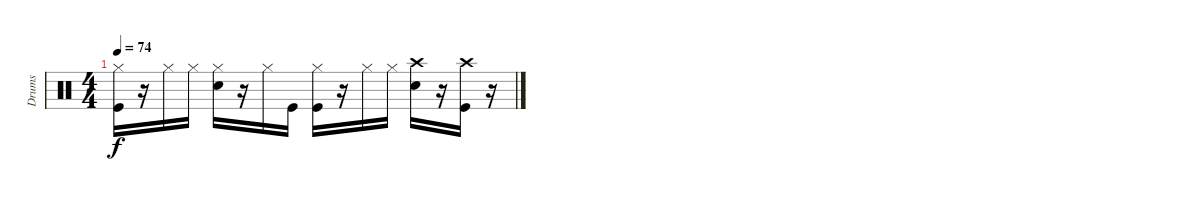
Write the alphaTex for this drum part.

\track ("Drums" "Drums") {instrument percussion}
\staff {score}
\articulation defaults
\ts (4 4)
\tempo 74
\clef neutral
\ks c
("Kick (hit)" "Hi-Hat (closed)").16{dy f} r.16 "Hi-Hat (closed)".16 "Hi-Hat (closed)".16 ("Snare (hit) 2" "Hi-Hat (closed)").16 r.16 "Hi-Hat (closed)".16 "Kick (hit)".16 ("Kick (hit)" "Hi-Hat (closed)").16 r.16 "Hi-Hat (closed)".16 "Hi-Hat (closed)".16 ("Crash high (hit)" "Snare (hit) 2").16 r.16 ("Kick (hit)" "Crash high (hit)").16 r.16
